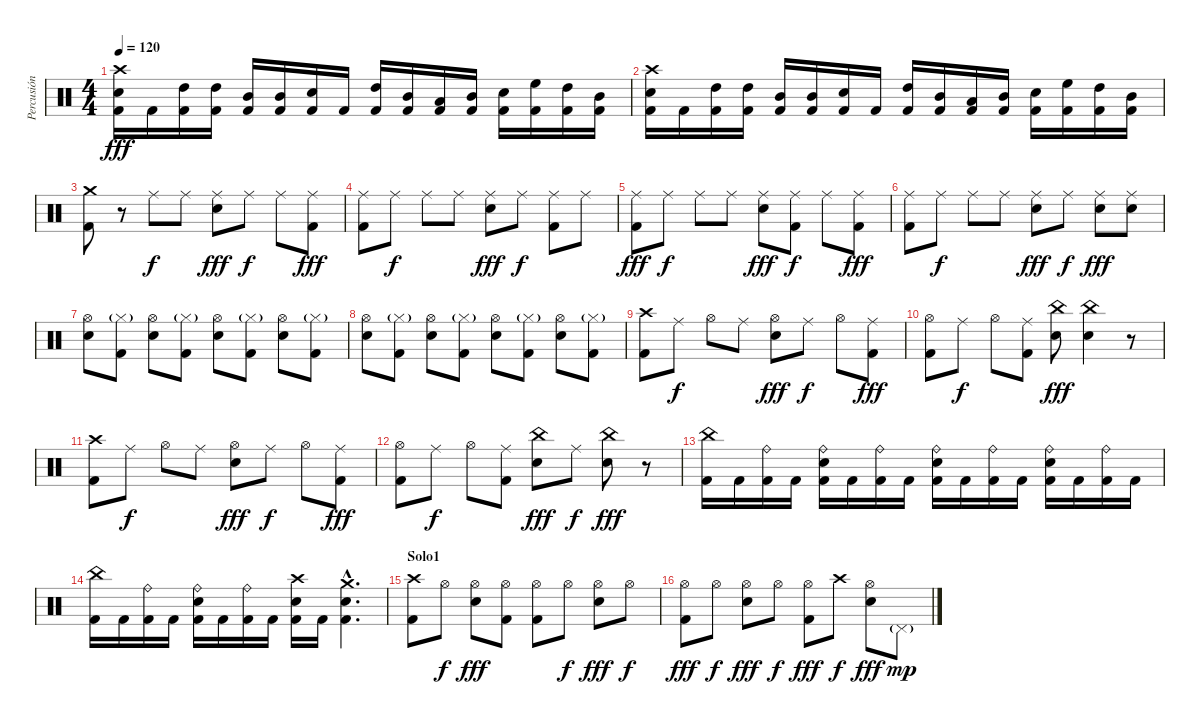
\track ("Percusión" "Percusión") {instrument percussion}
\staff {score}
\articulation defaults
\ts (4 4)
\tempo 120
\clef neutral
\ks c
("Crash high (hit)" "Snare (hit) 2" "Kick (hit) 2").16{dy fff} "Kick (hit) 2".16 ("High Tom (hit)" "Kick (hit) 2").16 ("High Tom (hit)" "Kick (hit) 2").16 ("Mid Tom (hit)" "Kick (hit) 2").16 ("Mid Tom (hit)" "Kick (hit) 2").16 ("Snare (hit) 2" "Kick (hit) 2").16 "Kick (hit) 2".16 ("High Tom (hit)" "Kick (hit) 2").16 ("Mid Tom (hit)" "Kick (hit) 2").16 ("Low Tom (hit)" "Kick (hit) 2").16 ("Mid Tom (hit)" "Kick (hit) 2").16 ("Snare (hit) 2" "Kick (hit) 2").16 ("High Floor Tom (hit)" "Kick (hit) 2").16 ("High Tom (hit)" "Kick (hit) 2").16 ("Mid Tom (hit)" "Kick (hit) 2").16 |
("Crash high (hit)" "Snare (hit) 2" "Kick (hit) 2").16 "Kick (hit) 2".16 ("High Tom (hit)" "Kick (hit) 2").16 ("High Tom (hit)" "Kick (hit) 2").16 ("Mid Tom (hit)" "Kick (hit) 2").16 ("Mid Tom (hit)" "Kick (hit) 2").16 ("Snare (hit) 2" "Kick (hit) 2").16 "Kick (hit) 2".16 ("High Tom (hit)" "Kick (hit) 2").16 ("Mid Tom (hit)" "Kick (hit) 2").16 ("Low Tom (hit)" "Kick (hit) 2").16 ("Mid Tom (hit)" "Kick (hit) 2").16 ("Snare (hit) 2" "Kick (hit) 2").16 ("High Floor Tom (hit)" "Kick (hit) 2").16 ("High Tom (hit)" "Kick (hit) 2").16 ("Mid Tom (hit)" "Kick (hit) 2").16 |
("Crash medium (hit)" "Kick (hit) 2").8 r.8 "Ride (middle)".8{dy f} "Ride (middle)".8 ("Ride (middle)" "Snare (hit) 2").8{dy fff} "Ride (middle)".8{dy f} "Ride (middle)".8 ("Ride (middle)" "Kick (hit) 2").8{dy fff} |
("Ride (middle)" "Kick (hit) 2").8 "Ride (middle)".8{dy f} "Ride (middle)".8 "Ride (middle)".8 ("Ride (middle)" "Snare (hit) 2").8{dy fff} "Ride (middle)".8{dy f} ("Ride (middle)" "Kick (hit) 2").8 "Ride (middle)".8 |
("Ride (middle)" "Kick (hit) 2").8{dy fff} "Ride (middle)".8{dy f} "Ride (middle)".8 "Ride (middle)".8 ("Ride (middle)" "Snare (hit) 2").8{dy fff} ("Ride (middle)" "Kick (hit) 2").8{dy f} "Ride (middle)".8 ("Ride (middle)" "Kick (hit) 2").8{dy fff} |
("Ride (middle)" "Kick (hit) 2").8 "Ride (middle)".8{dy f} "Ride (middle)".8 "Ride (middle)".8 ("Ride (middle)" "Snare (hit) 2").8{dy fff} "Ride (middle)".8{dy f} ("Ride (middle)" "Snare (hit) 2").8{dy fff} ("Ride (middle)" "Snare (hit) 2").8 |
("Hi-Hat (open)" "Snare (hit) 2").8 ("Hi-Hat (closed)"{g} "Kick (hit) 2").8 ("Hi-Hat (open)" "Snare (hit) 2").8 ("Hi-Hat (closed)"{g} "Kick (hit) 2").8 ("Hi-Hat (open)" "Snare (hit) 2").8 ("Hi-Hat (closed)"{g} "Kick (hit) 2").8 ("Hi-Hat (open)" "Snare (hit) 2").8 ("Hi-Hat (closed)"{g} "Kick (hit) 2").8 |
("Hi-Hat (open)" "Snare (hit) 2").8 ("Hi-Hat (closed)"{g} "Kick (hit) 2").8 ("Hi-Hat (open)" "Snare (hit) 2").8 ("Hi-Hat (closed)"{g} "Kick (hit) 2").8 ("Hi-Hat (open)" "Snare (hit) 2").8 ("Hi-Hat (closed)"{g} "Kick (hit) 2").8 ("Hi-Hat (open)" "Snare (hit) 2").8 ("Hi-Hat (closed)"{g} "Kick (hit) 2").8 |
("Crash high (hit)" "Kick (hit) 2").8 "Ride (middle)".8{dy f} "Hi-Hat (open)".8 "Ride (middle)".8 ("Hi-Hat (open)" "Snare (hit) 2").8{dy fff} "Ride (middle)".8{dy f} "Hi-Hat (open)".8 ("Ride (middle)" "Kick (hit) 2").8{dy fff} |
("Hi-Hat (open)" "Kick (hit) 2").8 "Ride (middle)".8{dy f} "Hi-Hat (open)".8 ("Ride (middle)" "Kick (hit) 2").8 ("China (hit)" "Snare (hit) 2").8{dy fff} ("China (hit)" "Snare (hit) 2").4 r.8 |
("Crash high (hit)" "Kick (hit) 2").8 "Ride (middle)".8{dy f} "Hi-Hat (open)".8 "Ride (middle)".8 ("Hi-Hat (open)" "Snare (hit) 2").8{dy fff} "Ride (middle)".8{dy f} "Hi-Hat (open)".8 ("Ride (middle)" "Kick (hit) 2").8{dy fff} |
("Hi-Hat (open)" "Kick (hit) 2").8 "Ride (middle)".8{dy f} "Hi-Hat (open)".8 ("Ride (middle)" "Kick (hit) 2").8 ("China (hit)" "Snare (hit) 2").8{dy fff} "Ride (middle)".8{dy f} ("China (hit)" "Snare (hit) 2").8{dy fff} r.8 |
("China (hit)" "Kick (hit) 2").16 "Kick (hit) 2".16 ("Ride (bell)" "Kick (hit) 2").16 "Kick (hit) 2".16 ("Ride (bell)" "Snare (hit) 2" "Kick (hit) 2").16 "Kick (hit) 2".16 ("Ride (bell)" "Kick (hit) 2").16 "Kick (hit) 2".16 ("Ride (bell)" "Snare (hit) 2" "Kick (hit) 2").16 "Kick (hit) 2".16 ("Ride (bell)" "Kick (hit) 2").16 "Kick (hit) 2".16 ("Ride (bell)" "Snare (hit) 2" "Kick (hit) 2").16 "Kick (hit) 2".16 ("Ride (bell)" "Kick (hit) 2").16 "Kick (hit) 2".16 |
("China (hit)" "Kick (hit) 2").16 "Kick (hit) 2".16 ("Ride (bell)" "Kick (hit) 2").16 "Kick (hit) 2".16 ("Ride (bell)" "Snare (hit) 2" "Kick (hit) 2").16 "Kick (hit) 2".16 ("Ride (bell)" "Kick (hit) 2").16 "Kick (hit) 2".16 ("Crash high (hit)" "Snare (hit) 2" "Kick (hit) 2").16 "Kick (hit) 2".16 ("Crash medium (hit)"{hac} "Snare (hit) 2"{hac} "Kick (hit) 2"{hac}).4{d} |
\section ("" "Solo1")
("Crash high (hit)" "Kick (hit) 2").8 "Hi-Hat (open)".8{dy f} ("Hi-Hat (open)" "Snare (hit) 2").8{dy fff} ("Hi-Hat (open)" "Kick (hit) 2").8 ("Hi-Hat (open)" "Kick (hit) 2").8 "Hi-Hat (open)".8{dy f} ("Hi-Hat (open)" "Snare (hit) 2").8{dy fff} "Hi-Hat (open)".8{dy f} |
("Hi-Hat (open)" "Kick (hit) 2").8{dy fff} "Hi-Hat (open)".8{dy f} ("Hi-Hat (open)" "Snare (hit) 2").8{dy fff} "Hi-Hat (open)".8{dy f} ("Hi-Hat (open)" "Kick (hit) 2").8{dy fff} "Crash high (hit)".8{dy f} ("Hi-Hat (open)" "Snare (hit) 2").8{dy fff} "Pedal Hi-Hat (hit)"{g}.8{dy mp}
